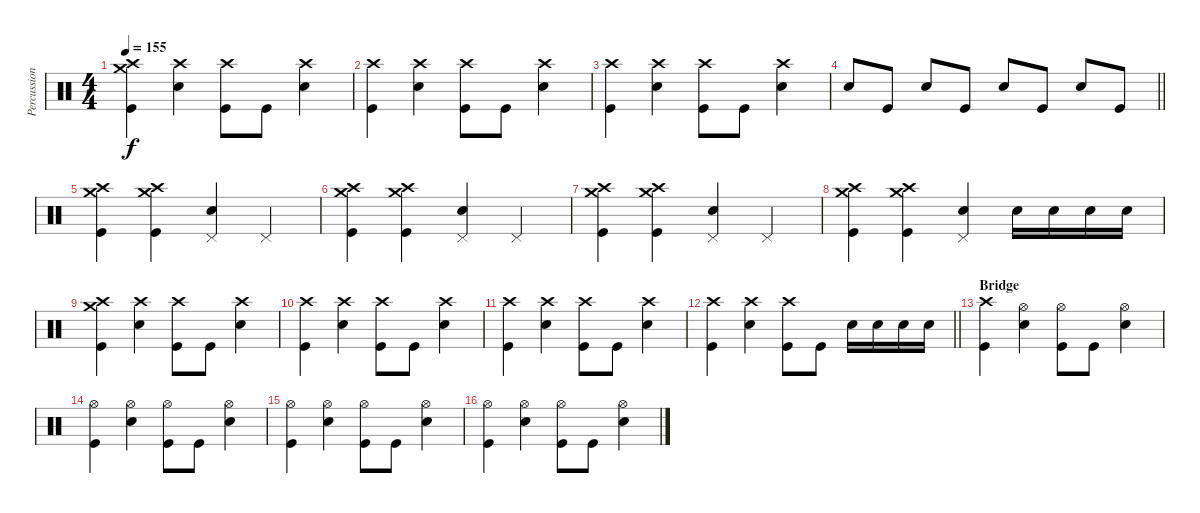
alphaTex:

\track ("Percussion" "Percussion") {instrument percussion}
\staff {score}
\articulation defaults
\ts (4 4)
\tempo 155
\clef neutral
\ks c
("Crash high (hit)" "Crash medium (hit)" "Kick (hit)").4{dy f} ("Crash high (hit)" "Electric Snare (hit)").4 ("Crash high (hit)" "Kick (hit)").8 "Kick (hit)".8 ("Crash high (hit)" "Electric Snare (hit)").4 |
("Crash high (hit)" "Kick (hit)").4 ("Crash high (hit)" "Electric Snare (hit)").4 ("Crash high (hit)" "Kick (hit)").8 "Kick (hit)".8 ("Crash high (hit)" "Electric Snare (hit)").4 |
("Crash high (hit)" "Kick (hit)").4 ("Crash high (hit)" "Electric Snare (hit)").4 ("Crash high (hit)" "Kick (hit)").8 "Kick (hit)".8 ("Crash high (hit)" "Electric Snare (hit)").4 |
\barLineRight lightlight "Electric Snare (hit)".8 "Kick (hit)".8 "Electric Snare (hit)".8 "Kick (hit)".8 "Electric Snare (hit)".8 "Kick (hit)".8 "Electric Snare (hit)".8 "Kick (hit)".8
|
("Crash high (hit)" "Crash medium (hit)" "Kick (hit)").4 ("Crash high (hit)" "Crash medium (hit)" "Kick (hit)").4 ("Pedal Hi-Hat (hit)" "Electric Snare (hit)").4 "Pedal Hi-Hat (hit)".4 |
("Crash high (hit)" "Crash medium (hit)" "Kick (hit)").4 ("Crash high (hit)" "Crash medium (hit)" "Kick (hit)").4 ("Pedal Hi-Hat (hit)" "Electric Snare (hit)").4 "Pedal Hi-Hat (hit)".4 |
("Crash high (hit)" "Crash medium (hit)" "Kick (hit)").4 ("Crash high (hit)" "Crash medium (hit)" "Kick (hit)").4 ("Pedal Hi-Hat (hit)" "Electric Snare (hit)").4 "Pedal Hi-Hat (hit)".4 |
("Crash high (hit)" "Crash medium (hit)" "Kick (hit)").4 ("Crash high (hit)" "Crash medium (hit)" "Kick (hit)").4 ("Pedal Hi-Hat (hit)" "Electric Snare (hit)").4 "Electric Snare (hit)".16 "Electric Snare (hit)".16 "Electric Snare (hit)".16 "Electric Snare (hit)".16 |
("Crash high (hit)" "Crash medium (hit)" "Kick (hit)").4 ("Crash high (hit)" "Electric Snare (hit)").4 ("Crash high (hit)" "Kick (hit)").8 "Kick (hit)".8 ("Crash high (hit)" "Electric Snare (hit)").4 |
("Crash high (hit)" "Kick (hit)").4 ("Crash high (hit)" "Electric Snare (hit)").4 ("Crash high (hit)" "Kick (hit)").8 "Kick (hit)".8 ("Crash high (hit)" "Electric Snare (hit)").4 |
("Crash high (hit)" "Kick (hit)").4 ("Crash high (hit)" "Electric Snare (hit)").4 ("Crash high (hit)" "Kick (hit)").8 "Kick (hit)".8 ("Crash high (hit)" "Electric Snare (hit)").4 |
\barLineRight lightlight
("Crash high (hit)" "Kick (hit)").4 ("Crash high (hit)" "Electric Snare (hit)").4 ("Crash high (hit)" "Kick (hit)").8 "Kick (hit)".8 "Electric Snare (hit)".16 "Electric Snare (hit)".16 "Electric Snare (hit)".16 "Electric Snare (hit)".16 |
\section ("" "Bridge")
("Crash high (hit)" "Kick (hit)").4 ("Hi-Hat (open)" "Electric Snare (hit)").4 ("Hi-Hat (open)" "Kick (hit)").8 "Kick (hit)".8 ("Hi-Hat (open)" "Electric Snare (hit)").4 |
("Hi-Hat (open)" "Kick (hit)").4 ("Hi-Hat (open)" "Electric Snare (hit)").4 ("Hi-Hat (open)" "Kick (hit)").8 "Kick (hit)".8 ("Hi-Hat (open)" "Electric Snare (hit)").4 |
("Hi-Hat (open)" "Kick (hit)").4 ("Hi-Hat (open)" "Electric Snare (hit)").4 ("Hi-Hat (open)" "Kick (hit)").8 "Kick (hit)".8 ("Hi-Hat (open)" "Electric Snare (hit)").4 |
("Hi-Hat (open)" "Kick (hit)").4 ("Hi-Hat (open)" "Electric Snare (hit)").4 ("Hi-Hat (open)" "Kick (hit)").8 "Kick (hit)".8 ("Hi-Hat (open)" "Electric Snare (hit)").4
